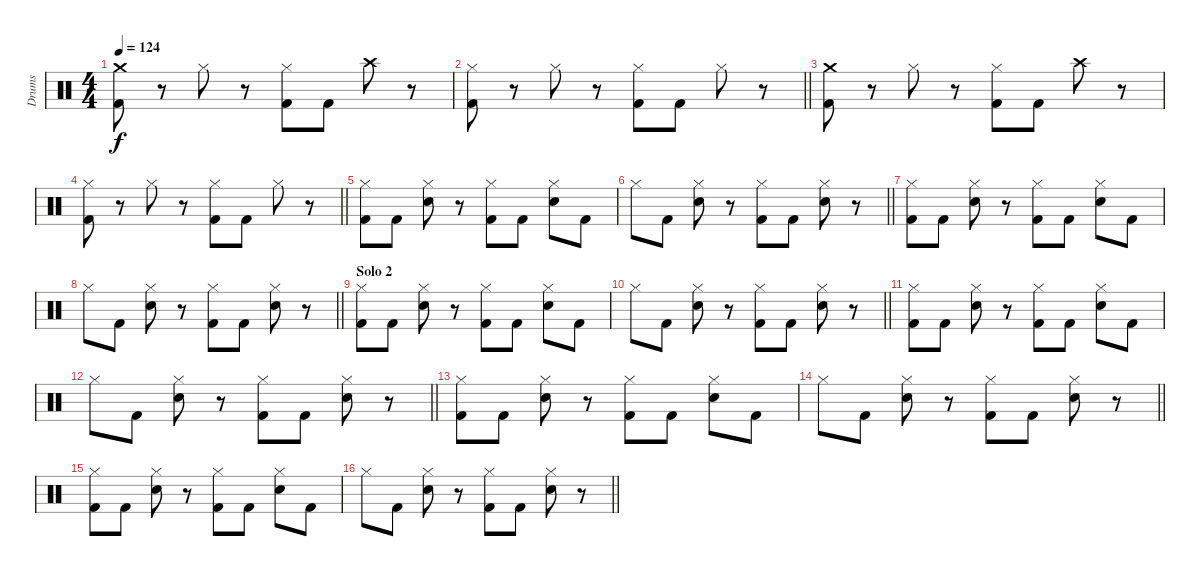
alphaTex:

\track ("Drums" "Drums") {instrument percussion}
\staff {score}
\articulation defaults
\ts (4 4)
\tempo 124
\clef neutral
\ks c
("Crash medium (hit)" "Kick (hit) 2").8{dy f} r.8 "Hi-Hat (closed)".8 r.8 ("Hi-Hat (closed)" "Kick (hit) 2").8 "Kick (hit) 2".8 "Crash high (hit)".8 r.8 |
\barLineRight lightlight
("Hi-Hat (closed)" "Kick (hit) 2").8 r.8 "Hi-Hat (closed)".8 r.8 ("Hi-Hat (closed)" "Kick (hit) 2").8 "Kick (hit) 2".8 "Hi-Hat (closed)".8 r.8 |
("Crash medium (hit)" "Kick (hit) 2").8 r.8 "Hi-Hat (closed)".8 r.8 ("Hi-Hat (closed)" "Kick (hit) 2").8 "Kick (hit) 2".8 "Crash high (hit)".8 r.8 |
\barLineRight lightlight
("Hi-Hat (closed)" "Kick (hit) 2").8 r.8 "Hi-Hat (closed)".8 r.8 ("Hi-Hat (closed)" "Kick (hit) 2").8 "Kick (hit) 2".8 "Hi-Hat (closed)".8 r.8 |
("Hi-Hat (closed)" "Kick (hit) 2").8 "Kick (hit) 2".8 ("Hi-Hat (closed)" "Snare (hit) 2").8 r.8 ("Hi-Hat (closed)" "Kick (hit) 2").8 "Kick (hit) 2".8 ("Hi-Hat (closed)" "Snare (hit) 2").8 "Kick (hit) 2".8 |
\barLineRight lightlight "Hi-Hat (closed)".8 "Kick (hit) 2".8
("Hi-Hat (closed)" "Snare (hit) 2").8 r.8 ("Hi-Hat (closed)" "Kick (hit) 2").8 "Kick (hit) 2".8 ("Hi-Hat (closed)" "Snare (hit) 2").8 r.8 |
("Hi-Hat (closed)" "Kick (hit) 2").8 "Kick (hit) 2".8 ("Hi-Hat (closed)" "Snare (hit) 2").8 r.8 ("Hi-Hat (closed)" "Kick (hit) 2").8 "Kick (hit) 2".8 ("Hi-Hat (closed)" "Snare (hit) 2").8 "Kick (hit) 2".8 |
\barLineRight lightlight "Hi-Hat (closed)".8 "Kick (hit) 2".8
("Hi-Hat (closed)" "Snare (hit) 2").8 r.8 ("Hi-Hat (closed)" "Kick (hit) 2").8 "Kick (hit) 2".8 ("Hi-Hat (closed)" "Snare (hit) 2").8 r.8 |
\section ("" "Solo 2")
("Hi-Hat (closed)" "Kick (hit) 2").8 "Kick (hit) 2".8 ("Hi-Hat (closed)" "Snare (hit) 2").8 r.8 ("Hi-Hat (closed)" "Kick (hit) 2").8 "Kick (hit) 2".8 ("Hi-Hat (closed)" "Snare (hit) 2").8 "Kick (hit) 2".8 |
\barLineRight lightlight "Hi-Hat (closed)".8 "Kick (hit) 2".8
("Hi-Hat (closed)" "Snare (hit) 2").8 r.8 ("Hi-Hat (closed)" "Kick (hit) 2").8 "Kick (hit) 2".8 ("Hi-Hat (closed)" "Snare (hit) 2").8 r.8 |
("Hi-Hat (closed)" "Kick (hit) 2").8 "Kick (hit) 2".8 ("Hi-Hat (closed)" "Snare (hit) 2").8 r.8 ("Hi-Hat (closed)" "Kick (hit) 2").8 "Kick (hit) 2".8 ("Hi-Hat (closed)" "Snare (hit) 2").8 "Kick (hit) 2".8 |
\barLineRight lightlight "Hi-Hat (closed)".8 "Kick (hit) 2".8
("Hi-Hat (closed)" "Snare (hit) 2").8 r.8 ("Hi-Hat (closed)" "Kick (hit) 2").8 "Kick (hit) 2".8 ("Hi-Hat (closed)" "Snare (hit) 2").8 r.8 |
("Hi-Hat (closed)" "Kick (hit) 2").8 "Kick (hit) 2".8 ("Hi-Hat (closed)" "Snare (hit) 2").8 r.8 ("Hi-Hat (closed)" "Kick (hit) 2").8 "Kick (hit) 2".8 ("Hi-Hat (closed)" "Snare (hit) 2").8 "Kick (hit) 2".8 |
\barLineRight lightlight "Hi-Hat (closed)".8 "Kick (hit) 2".8
("Hi-Hat (closed)" "Snare (hit) 2").8 r.8 ("Hi-Hat (closed)" "Kick (hit) 2").8 "Kick (hit) 2".8 ("Hi-Hat (closed)" "Snare (hit) 2").8 r.8 |
("Hi-Hat (closed)" "Kick (hit) 2").8 "Kick (hit) 2".8 ("Hi-Hat (closed)" "Snare (hit) 2").8 r.8 ("Hi-Hat (closed)" "Kick (hit) 2").8 "Kick (hit) 2".8 ("Hi-Hat (closed)" "Snare (hit) 2").8 "Kick (hit) 2".8 |
\barLineRight lightlight "Hi-Hat (closed)".8 "Kick (hit) 2".8
("Hi-Hat (closed)" "Snare (hit) 2").8 r.8 ("Hi-Hat (closed)" "Kick (hit) 2").8 "Kick (hit) 2".8 ("Hi-Hat (closed)" "Snare (hit) 2").8 r.8
